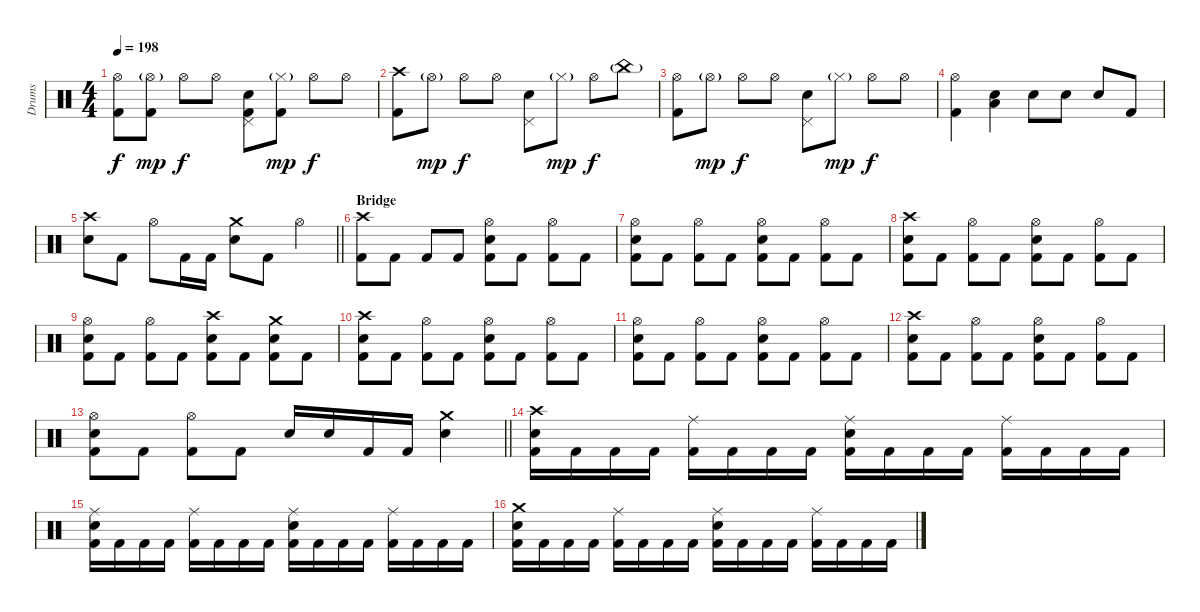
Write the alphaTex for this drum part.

\track ("Drums" "Drums") {instrument percussion}
\staff {score}
\articulation defaults
\ts (4 4)
\tempo 198
\clef neutral
\ks c
("Hi-Hat (open)" "Kick (hit) 2").8{dy f} ("Hi-Hat (open)"{g} "Kick (hit) 2").8{dy mp} "Hi-Hat (open)".8{dy f} "Hi-Hat (open)".8 ("Pedal Hi-Hat (hit)" "Electric Snare (hit)" "Kick (hit) 2").8 ("Hi-Hat (closed)"{g} "Kick (hit) 2").8{dy mp} "Hi-Hat (open)".8{dy f} "Hi-Hat (open)".8 |
("Crash high (hit)" "Kick (hit) 2").8 "Hi-Hat (open)"{g}.8{dy mp} "Hi-Hat (open)".8{dy f} "Hi-Hat (open)".8 ("Pedal Hi-Hat (hit)" "Electric Snare (hit)").8 "Hi-Hat (closed)"{g}.8{dy mp} "Hi-Hat (open)".8{dy f} "China (hit)"{g}.8 |
("Hi-Hat (open)" "Kick (hit) 2").8 "Hi-Hat (open)"{g}.8{dy mp} "Hi-Hat (open)".8{dy f} "Hi-Hat (open)".8 ("Pedal Hi-Hat (hit)" "Electric Snare (hit)").8 "Hi-Hat (closed)"{g}.8{dy mp} "Hi-Hat (open)".8{dy f} "Hi-Hat (open)".8 |
("Hi-Hat (open)" "Kick (hit) 2").4 ("Low Floor Tom (hit)" "Electric Snare (hit)").4 "Electric Snare (hit)".8 "Electric Snare (hit)".8 "Electric Snare (hit)".8 "Kick (hit) 2".8 |
\barLineRight lightlight
("Crash high (hit)" "Electric Snare (hit)").8 "Kick (hit) 2".8 "Hi-Hat (open)".8 "Kick (hit) 2".16 "Kick (hit) 2".16 ("Crash medium (hit)" "Electric Snare (hit)").8 "Kick (hit) 2".8 "Hi-Hat (open)".4 |
\section ("" "Bridge")
("Crash high (hit)" "Kick (hit) 2").8 "Kick (hit) 2".8 "Kick (hit) 2".8 "Kick (hit) 2".8 ("Hi-Hat (open)" "Electric Snare (hit)" "Kick (hit) 2").8 "Kick (hit) 2".8 ("Hi-Hat (open)" "Kick (hit) 2").8 "Kick (hit) 2".8 |
("Hi-Hat (open)" "Electric Snare (hit)" "Kick (hit) 2").8 "Kick (hit) 2".8 ("Hi-Hat (open)" "Kick (hit) 2").8 "Kick (hit) 2".8 ("Hi-Hat (open)" "Electric Snare (hit)" "Kick (hit) 2").8 "Kick (hit) 2".8 ("Hi-Hat (open)" "Kick (hit) 2").8 "Kick (hit) 2".8 |
("Crash high (hit)" "Electric Snare (hit)" "Kick (hit) 2").8 "Kick (hit) 2".8 ("Hi-Hat (open)" "Kick (hit) 2").8 "Kick (hit) 2".8 ("Hi-Hat (open)" "Electric Snare (hit)" "Kick (hit) 2").8 "Kick (hit) 2".8 ("Hi-Hat (open)" "Kick (hit) 2").8 "Kick (hit) 2".8 |
("Hi-Hat (open)" "Electric Snare (hit)" "Kick (hit) 2").8 "Kick (hit) 2".8 ("Hi-Hat (open)" "Kick (hit) 2").8 "Kick (hit) 2".8 ("Crash high (hit)" "Electric Snare (hit)" "Kick (hit) 2").8 "Kick (hit) 2".8 ("Crash medium (hit)" "Electric Snare (hit)" "Kick (hit) 2").8 "Kick (hit) 2".8 |
("Crash high (hit)" "Electric Snare (hit)" "Kick (hit) 2").8 "Kick (hit) 2".8 ("Hi-Hat (open)" "Kick (hit) 2").8 "Kick (hit) 2".8 ("Hi-Hat (open)" "Electric Snare (hit)" "Kick (hit) 2").8 "Kick (hit) 2".8 ("Hi-Hat (open)" "Kick (hit) 2").8 "Kick (hit) 2".8 |
("Hi-Hat (open)" "Electric Snare (hit)" "Kick (hit) 2").8 "Kick (hit) 2".8 ("Hi-Hat (open)" "Kick (hit) 2").8 "Kick (hit) 2".8 ("Hi-Hat (open)" "Electric Snare (hit)" "Kick (hit) 2").8 "Kick (hit) 2".8 ("Hi-Hat (open)" "Kick (hit) 2").8 "Kick (hit) 2".8 |
("Crash high (hit)" "Electric Snare (hit)" "Kick (hit) 2").8 "Kick (hit) 2".8 ("Hi-Hat (open)" "Kick (hit) 2").8 "Kick (hit) 2".8 ("Hi-Hat (open)" "Electric Snare (hit)" "Kick (hit) 2").8 "Kick (hit) 2".8 ("Hi-Hat (open)" "Kick (hit) 2").8 "Kick (hit) 2".8 |
\barLineRight lightlight
("Hi-Hat (open)" "Electric Snare (hit)" "Kick (hit) 2").8 "Kick (hit) 2".8 ("Hi-Hat (open)" "Kick (hit) 2").8 "Kick (hit) 2".8 "Electric Snare (hit)".16 "Electric Snare (hit)".16 "Kick (hit) 2".16 "Kick (hit) 2".16 ("Crash medium (hit)" "Electric Snare (hit)").4 |
("Crash high (hit)" "Electric Snare (hit)" "Kick (hit) 2").16 "Kick (hit) 2".16 "Kick (hit) 2".16 "Kick (hit) 2".16 ("Ride (middle)" "Kick (hit) 2").16 "Kick (hit) 2".16 "Kick (hit) 2".16 "Kick (hit) 2".16 ("Ride (middle)" "Electric Snare (hit)" "Kick (hit) 2").16 "Kick (hit) 2".16 "Kick (hit) 2".16 "Kick (hit) 2".16 ("Ride (middle)" "Kick (hit) 2").16 "Kick (hit) 2".16 "Kick (hit) 2".16 "Kick (hit) 2".16 |
("Ride (middle)" "Electric Snare (hit)" "Kick (hit) 2").16 "Kick (hit) 2".16 "Kick (hit) 2".16 "Kick (hit) 2".16 ("Ride (middle)" "Kick (hit) 2").16 "Kick (hit) 2".16 "Kick (hit) 2".16 "Kick (hit) 2".16 ("Ride (middle)" "Electric Snare (hit)" "Kick (hit) 2").16 "Kick (hit) 2".16 "Kick (hit) 2".16 "Kick (hit) 2".16 ("Ride (middle)" "Kick (hit) 2").16 "Kick (hit) 2".16 "Kick (hit) 2".16 "Kick (hit) 2".16 |
("Crash medium (hit)" "Electric Snare (hit)" "Kick (hit) 2").16 "Kick (hit) 2".16 "Kick (hit) 2".16 "Kick (hit) 2".16 ("Ride (middle)" "Kick (hit) 2").16 "Kick (hit) 2".16 "Kick (hit) 2".16 "Kick (hit) 2".16 ("Ride (middle)" "Electric Snare (hit)" "Kick (hit) 2").16 "Kick (hit) 2".16 "Kick (hit) 2".16 "Kick (hit) 2".16 ("Ride (middle)" "Kick (hit) 2").16 "Kick (hit) 2".16 "Kick (hit) 2".16 "Kick (hit) 2".16
